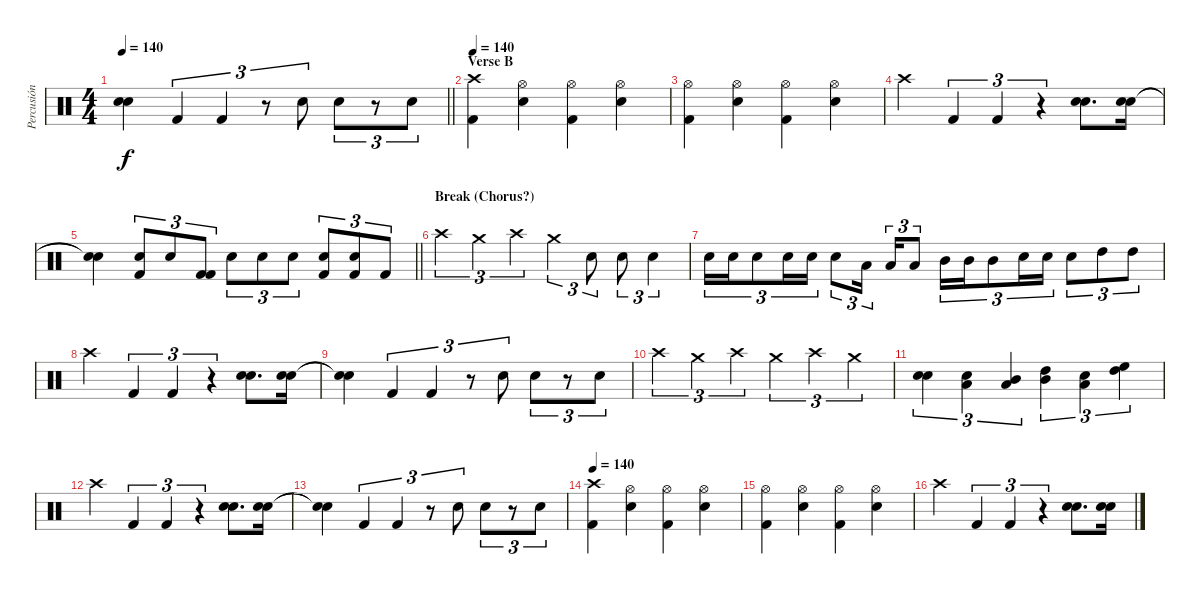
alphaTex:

\track ("Percusión" "Percusión") {instrument percussion}
\staff {score}
\articulation defaults
\ts (4 4)
\tempo 140
\clef neutral
\barLineRight lightlight
\ks c
("Snare (hit)"{t} "Snare (hit)"{t}).4{dy f} "Kick (hit) 2".4{tu (3 2)} "Kick (hit) 2".4{tu (3 2)} r.8{tu (3 2)} "Snare (hit) 2".8{tu (3 2)} "Snare (hit) 2".8{tu (3 2)} r.8{tu (3 2)} "Snare (hit) 2".8{tu (3 2)} |
\section ("" "Verse B")
\tempo 140
("Crash high (hit)" "Kick (hit) 2").4 ("Hi-Hat (open)" "Electric Snare (hit)").4 ("Hi-Hat (open)" "Kick (hit) 2").4 ("Hi-Hat (open)" "Electric Snare (hit)").4 |
("Hi-Hat (open)" "Kick (hit) 2").4 ("Hi-Hat (open)" "Electric Snare (hit)").4 ("Hi-Hat (open)" "Kick (hit) 2").4 ("Hi-Hat (open)" "Electric Snare (hit)").4 |
"Crash high (hit)".4 "Kick (hit) 2".4{tu (3 2)} "Kick (hit) 2".4{tu (3 2)} r.4{tu (3 2)} ("Electric Snare (hit)" "Snare (hit) 2").8{d} ("Electric Snare (hit)" "Snare (hit) 2").16 |
\barLineRight lightlight
("Snare (hit)"{t} "Snare (hit)"{t}).4 ("Snare (hit) 2" "Kick (hit) 2").8{tu (3 2)} "Snare (hit) 2".8{tu (3 2)} ("Kick (hit) 2" "Kick (hit) 2").8{tu (3 2)} "Electric Snare (hit)".8{tu (3 2)} "Electric Snare (hit)".8{tu (3 2)} "Electric Snare (hit)".8{tu (3 2)} ("Snare (hit) 2" "Kick (hit) 2").8{tu (3 2)} ("Snare (hit) 2" "Kick (hit) 2").8{tu (3 2)} "Kick (hit) 2".8{tu (3 2)} |
\section ("" "Break (Chorus?)")
"Crash high (hit)".4{tu (3 2)} "Crash medium (hit)".4{tu (3 2)} "Crash high (hit)".4{tu (3 2)} "Crash medium (hit)".4{tu (3 2)} "Snare (hit) 2".8{tu (3 2)} "Snare (hit) 2".8{tu (3 2)} "Snare (hit) 2".4{tu (3 2)} |
"Snare (hit) 2".16{tu (3 2)} "Snare (hit) 2".16{tu (3 2)} "Snare (hit) 2".8{tu (3 2)} "Electric Snare (hit)".16{tu (3 2)} "Electric Snare (hit)".16{tu (3 2)} "Electric Snare (hit)".8{tu (3 2)} "Low Tom (hit)".16{tu (3 2) beam splitsecondary} "Low Tom (hit)".16{tu (3 2)} "Low Tom (hit)".8{tu (3 2)} "Mid Tom (hit)".16{tu (3 2)} "Mid Tom (hit)".16{tu (3 2)} "Mid Tom (hit)".8{tu (3 2)} "Electric Snare (hit)".16{tu (3 2)} "Electric Snare (hit)".16{tu (3 2)} "Electric Snare (hit)".8{tu (3 2)} "High Tom (hit)".8{tu (3 2)} "High Tom (hit)".8{tu (3 2)} |
"Crash high (hit)".4 "Kick (hit) 2".4{tu (3 2)} "Kick (hit) 2".4{tu (3 2)} r.4{tu (3 2)} ("Electric Snare (hit)" "Snare (hit) 2").8{d} ("Electric Snare (hit)" "Snare (hit) 2").16 |
("Snare (hit)"{t} "Snare (hit)"{t}).4 "Kick (hit) 2".4{tu (3 2)} "Kick (hit) 2".4{tu (3 2)} r.8{tu (3 2)} "Snare (hit) 2".8{tu (3 2)} "Snare (hit) 2".8{tu (3 2)} r.8{tu (3 2)} "Snare (hit) 2".8{tu (3 2)} |
"Crash high (hit)".4{tu (3 2)} "Crash medium (hit)".4{tu (3 2)} "Crash high (hit)".4{tu (3 2)} "Crash medium (hit)".4{tu (3 2)} "Crash high (hit)".4{tu (3 2)} "Crash medium (hit)".4{tu (3 2)} |
("Electric Snare (hit)" "Snare (hit) 2").4{tu (3 2)} ("Low Tom (hit)" "Electric Snare (hit)").4{tu (3 2)} ("Mid Tom (hit)" "Low Tom (hit)").4{tu (3 2)} ("High Tom (hit)" "Mid Tom (hit)").4{tu (3 2)} ("Low Tom (hit)" "Electric Snare (hit)").4{tu (3 2)} ("High Floor Tom (hit)" "High Tom (hit)").4{tu (3 2)} |
"Crash high (hit)".4 "Kick (hit) 2".4{tu (3 2)} "Kick (hit) 2".4{tu (3 2)} r.4{tu (3 2)} ("Electric Snare (hit)" "Snare (hit) 2").8{d} ("Electric Snare (hit)" "Snare (hit) 2").16 |
("Snare (hit)"{t} "Snare (hit)"{t}).4 "Kick (hit) 2".4{tu (3 2)} "Kick (hit) 2".4{tu (3 2)} r.8{tu (3 2)} "Snare (hit) 2".8{tu (3 2)} "Snare (hit) 2".8{tu (3 2)} r.8{tu (3 2)} "Snare (hit) 2".8{tu (3 2)} |
\tempo 140
("Crash high (hit)" "Kick (hit) 2").4 ("Hi-Hat (open)" "Electric Snare (hit)").4 ("Hi-Hat (open)" "Kick (hit) 2").4 ("Hi-Hat (open)" "Electric Snare (hit)").4 |
("Hi-Hat (open)" "Kick (hit) 2").4 ("Hi-Hat (open)" "Electric Snare (hit)").4 ("Hi-Hat (open)" "Kick (hit) 2").4 ("Hi-Hat (open)" "Electric Snare (hit)").4 |
"Crash high (hit)".4 "Kick (hit) 2".4{tu (3 2)} "Kick (hit) 2".4{tu (3 2)} r.4{tu (3 2)} ("Electric Snare (hit)" "Snare (hit) 2").8{d} ("Electric Snare (hit)" "Snare (hit) 2").16
